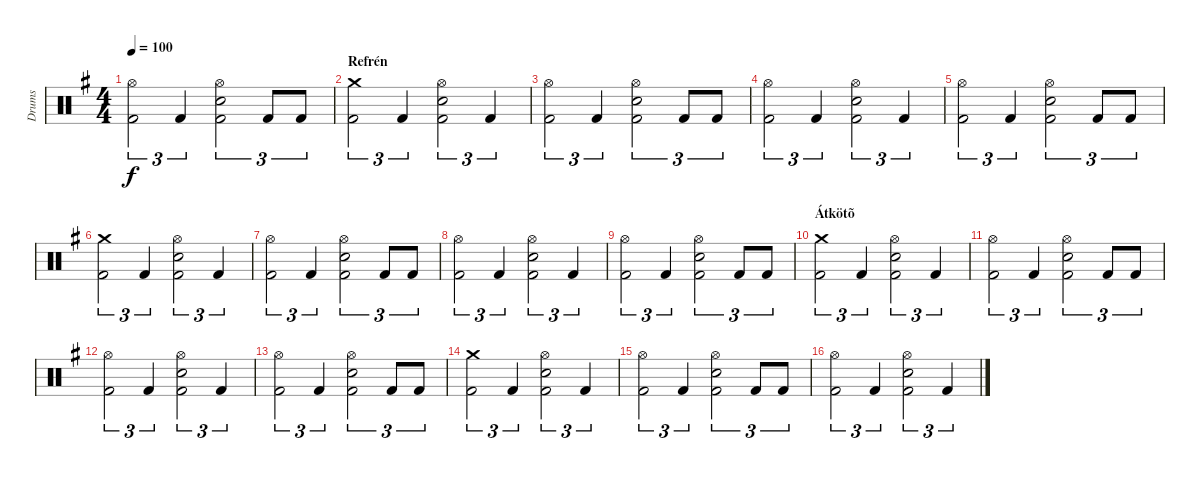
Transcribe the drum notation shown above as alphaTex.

\track ("Drums" "Drums") {instrument percussion}
\staff {score}
\articulation defaults
\ts (4 4)
\tempo 100
\clef neutral
\ks g
("Hi-Hat (open)" "Kick (hit) 2").2{tu (3 2) dy f} "Kick (hit) 2".4{tu (3 2)} ("Hi-Hat (open)" "Snare (hit) 2" "Kick (hit) 2").2{tu (3 2)} "Kick (hit) 2".8{tu (3 2)} "Kick (hit) 2".8{tu (3 2)} |
\section ("" "Refrén")
("Crash medium (hit)" "Kick (hit) 2").2{tu (3 2)} "Kick (hit) 2".4{tu (3 2)} ("Hi-Hat (open)" "Snare (hit) 2" "Kick (hit) 2").2{tu (3 2)} "Kick (hit) 2".4{tu (3 2)} |
("Hi-Hat (open)" "Kick (hit) 2").2{tu (3 2)} "Kick (hit) 2".4{tu (3 2)} ("Hi-Hat (open)" "Snare (hit) 2" "Kick (hit) 2").2{tu (3 2)} "Kick (hit) 2".8{tu (3 2)} "Kick (hit) 2".8{tu (3 2)} |
("Hi-Hat (open)" "Kick (hit) 2").2{tu (3 2)} "Kick (hit) 2".4{tu (3 2)} ("Hi-Hat (open)" "Snare (hit) 2" "Kick (hit) 2").2{tu (3 2)} "Kick (hit) 2".4{tu (3 2)} |
("Hi-Hat (open)" "Kick (hit) 2").2{tu (3 2)} "Kick (hit) 2".4{tu (3 2)} ("Hi-Hat (open)" "Snare (hit) 2" "Kick (hit) 2").2{tu (3 2)} "Kick (hit) 2".8{tu (3 2)} "Kick (hit) 2".8{tu (3 2)} |
("Crash medium (hit)" "Kick (hit) 2").2{tu (3 2)} "Kick (hit) 2".4{tu (3 2)} ("Hi-Hat (open)" "Snare (hit) 2" "Kick (hit) 2").2{tu (3 2)} "Kick (hit) 2".4{tu (3 2)} |
("Hi-Hat (open)" "Kick (hit) 2").2{tu (3 2)} "Kick (hit) 2".4{tu (3 2)} ("Hi-Hat (open)" "Snare (hit) 2" "Kick (hit) 2").2{tu (3 2)} "Kick (hit) 2".8{tu (3 2)} "Kick (hit) 2".8{tu (3 2)} |
("Hi-Hat (open)" "Kick (hit) 2").2{tu (3 2)} "Kick (hit) 2".4{tu (3 2)} ("Hi-Hat (open)" "Snare (hit) 2" "Kick (hit) 2").2{tu (3 2)} "Kick (hit) 2".4{tu (3 2)} |
("Hi-Hat (open)" "Kick (hit) 2").2{tu (3 2)} "Kick (hit) 2".4{tu (3 2)} ("Hi-Hat (open)" "Snare (hit) 2" "Kick (hit) 2").2{tu (3 2)} "Kick (hit) 2".8{tu (3 2)} "Kick (hit) 2".8{tu (3 2)} |
\section ("" "Átkötõ")
("Crash medium (hit)" "Kick (hit) 2").2{tu (3 2)} "Kick (hit) 2".4{tu (3 2)} ("Hi-Hat (open)" "Snare (hit) 2" "Kick (hit) 2").2{tu (3 2)} "Kick (hit) 2".4{tu (3 2)} |
("Hi-Hat (open)" "Kick (hit) 2").2{tu (3 2)} "Kick (hit) 2".4{tu (3 2)} ("Hi-Hat (open)" "Snare (hit) 2" "Kick (hit) 2").2{tu (3 2)} "Kick (hit) 2".8{tu (3 2)} "Kick (hit) 2".8{tu (3 2)} |
("Hi-Hat (open)" "Kick (hit) 2").2{tu (3 2)} "Kick (hit) 2".4{tu (3 2)} ("Hi-Hat (open)" "Snare (hit) 2" "Kick (hit) 2").2{tu (3 2)} "Kick (hit) 2".4{tu (3 2)} |
("Hi-Hat (open)" "Kick (hit) 2").2{tu (3 2)} "Kick (hit) 2".4{tu (3 2)} ("Hi-Hat (open)" "Snare (hit) 2" "Kick (hit) 2").2{tu (3 2)} "Kick (hit) 2".8{tu (3 2)} "Kick (hit) 2".8{tu (3 2)} |
("Crash medium (hit)" "Kick (hit) 2").2{tu (3 2)} "Kick (hit) 2".4{tu (3 2)} ("Hi-Hat (open)" "Snare (hit) 2" "Kick (hit) 2").2{tu (3 2)} "Kick (hit) 2".4{tu (3 2)} |
("Hi-Hat (open)" "Kick (hit) 2").2{tu (3 2)} "Kick (hit) 2".4{tu (3 2)} ("Hi-Hat (open)" "Snare (hit) 2" "Kick (hit) 2").2{tu (3 2)} "Kick (hit) 2".8{tu (3 2)} "Kick (hit) 2".8{tu (3 2)} |
("Hi-Hat (open)" "Kick (hit) 2").2{tu (3 2)} "Kick (hit) 2".4{tu (3 2)} ("Hi-Hat (open)" "Snare (hit) 2" "Kick (hit) 2").2{tu (3 2)} "Kick (hit) 2".4{tu (3 2)}
